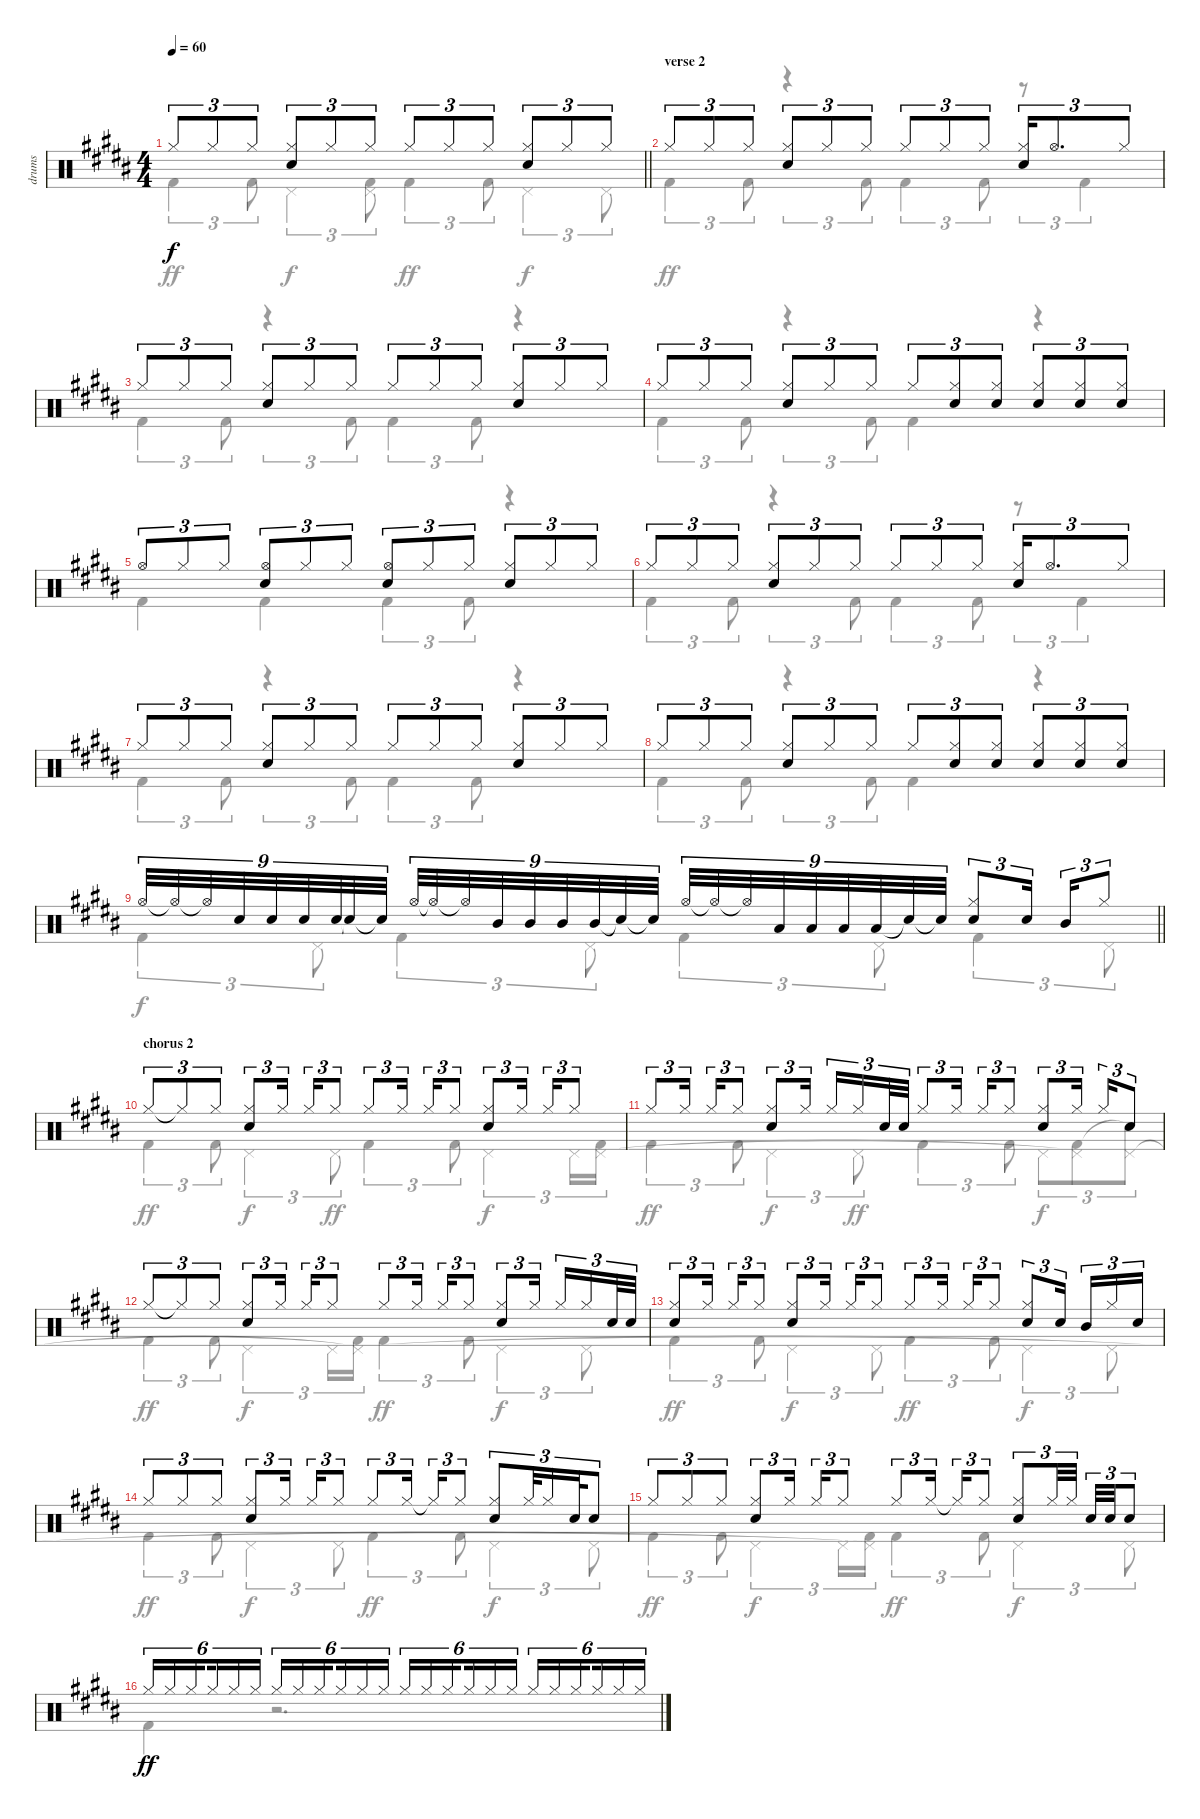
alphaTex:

\track ("drums" "drums") {instrument percussion}
\staff {score}
\articulation defaults
\voice
\ts (4 4)
\tempo 60
\clef neutral
\barLineRight lightlight
\ks b "Hi-Hat (closed)".8{tu (3 2) dy f} "Hi-Hat (closed)".8{tu (3 2)} "Hi-Hat (closed)".8{tu (3 2)}
("Hi-Hat (closed)" "Electric Snare (hit)").8{tu (3 2)} "Hi-Hat (closed)".8{tu (3 2)} "Hi-Hat (closed)".8{tu (3 2)} "Hi-Hat (closed)".8{tu (3 2)} "Hi-Hat (closed)".8{tu (3 2)} "Hi-Hat (closed)".8{tu (3 2)} ("Hi-Hat (closed)" "Electric Snare (hit)").8{tu (3 2)} "Hi-Hat (closed)".8{tu (3 2)} "Hi-Hat (closed)".8{tu (3 2)} |
\section ("" "verse 2")
"Hi-Hat (closed)".8{tu (3 2)} "Hi-Hat (closed)".8{tu (3 2)} "Hi-Hat (closed)".8{tu (3 2)} ("Hi-Hat (closed)" "Electric Snare (hit)").8{tu (3 2)} "Hi-Hat (closed)".8{tu (3 2)} "Hi-Hat (closed)".8{tu (3 2)} "Hi-Hat (closed)".8{tu (3 2)} "Hi-Hat (closed)".8{tu (3 2)} "Hi-Hat (closed)".8{tu (3 2)} ("Hi-Hat (closed)" "Electric Snare (hit)").16{tu (3 2)} "Hi-Hat (open)".8{d tu (3 2)} "Hi-Hat (closed)".8{tu (3 2)} |
"Hi-Hat (closed)".8{tu (3 2)} "Hi-Hat (closed)".8{tu (3 2)} "Hi-Hat (closed)".8{tu (3 2)} ("Hi-Hat (closed)" "Electric Snare (hit)").8{tu (3 2)} "Hi-Hat (closed)".8{tu (3 2)} "Hi-Hat (closed)".8{tu (3 2)} "Hi-Hat (closed)".8{tu (3 2)} "Hi-Hat (closed)".8{tu (3 2)} "Hi-Hat (closed)".8{tu (3 2)} ("Hi-Hat (closed)" "Electric Snare (hit)").8{tu (3 2)} "Hi-Hat (closed)".8{tu (3 2)} "Hi-Hat (closed)".8{tu (3 2)} |
"Hi-Hat (closed)".8{tu (3 2)} "Hi-Hat (closed)".8{tu (3 2)} "Hi-Hat (closed)".8{tu (3 2)} ("Hi-Hat (closed)" "Electric Snare (hit)").8{tu (3 2)} "Hi-Hat (closed)".8{tu (3 2)} "Hi-Hat (closed)".8{tu (3 2)} "Hi-Hat (closed)".8{tu (3 2)} ("Hi-Hat (closed)" "Electric Snare (hit)").8{tu (3 2)} ("Hi-Hat (closed)" "Electric Snare (hit)").8{tu (3 2)} ("Hi-Hat (closed)" "Electric Snare (hit)").8{tu (3 2)} ("Hi-Hat (closed)" "Electric Snare (hit)").8{tu (3 2)} ("Hi-Hat (closed)" "Electric Snare (hit)").8{tu (3 2)} |
"Hi-Hat (open)".8{tu (3 2)} "Hi-Hat (closed)".8{tu (3 2)} "Hi-Hat (closed)".8{tu (3 2)} ("Hi-Hat (open)" "Electric Snare (hit)").8{tu (3 2)} "Hi-Hat (closed)".8{tu (3 2)} "Hi-Hat (closed)".8{tu (3 2)} ("Hi-Hat (open)" "Electric Snare (hit)").8{tu (3 2)} "Hi-Hat (closed)".8{tu (3 2)} "Hi-Hat (closed)".8{tu (3 2)} ("Hi-Hat (closed)" "Electric Snare (hit)").8{tu (3 2)} "Hi-Hat (closed)".8{tu (3 2)} "Hi-Hat (closed)".8{tu (3 2)} |
"Hi-Hat (closed)".8{tu (3 2)} "Hi-Hat (closed)".8{tu (3 2)} "Hi-Hat (closed)".8{tu (3 2)} ("Hi-Hat (closed)" "Electric Snare (hit)").8{tu (3 2)} "Hi-Hat (closed)".8{tu (3 2)} "Hi-Hat (closed)".8{tu (3 2)} "Hi-Hat (closed)".8{tu (3 2)} "Hi-Hat (closed)".8{tu (3 2)} "Hi-Hat (closed)".8{tu (3 2)} ("Hi-Hat (closed)" "Electric Snare (hit)").16{tu (3 2)} "Hi-Hat (open)".8{d tu (3 2)} "Hi-Hat (closed)".8{tu (3 2)} |
"Hi-Hat (closed)".8{tu (3 2)} "Hi-Hat (closed)".8{tu (3 2)} "Hi-Hat (closed)".8{tu (3 2)} ("Hi-Hat (closed)" "Electric Snare (hit)").8{tu (3 2)} "Hi-Hat (closed)".8{tu (3 2)} "Hi-Hat (closed)".8{tu (3 2)} "Hi-Hat (closed)".8{tu (3 2)} "Hi-Hat (closed)".8{tu (3 2)} "Hi-Hat (closed)".8{tu (3 2)} ("Hi-Hat (closed)" "Electric Snare (hit)").8{tu (3 2)} "Hi-Hat (closed)".8{tu (3 2)} "Hi-Hat (closed)".8{tu (3 2)} |
"Hi-Hat (closed)".8{tu (3 2)} "Hi-Hat (closed)".8{tu (3 2)} "Hi-Hat (closed)".8{tu (3 2)} ("Hi-Hat (closed)" "Electric Snare (hit)").8{tu (3 2)} "Hi-Hat (closed)".8{tu (3 2)} "Hi-Hat (closed)".8{tu (3 2)} "Hi-Hat (closed)".8{tu (3 2)} ("Hi-Hat (closed)" "Electric Snare (hit)").8{tu (3 2)} ("Hi-Hat (closed)" "Electric Snare (hit)").8{tu (3 2)} ("Hi-Hat (closed)" "Electric Snare (hit)").8{tu (3 2)} ("Hi-Hat (closed)" "Electric Snare (hit)").8{tu (3 2)} ("Hi-Hat (closed)" "Electric Snare (hit)").8{tu (3 2)} |
\barLineRight lightlight "Hi-Hat (open)".32{tu (9 8)} "Hi-Hat (open)"{t}.32{tu (9 8)} "Hi-Hat (open)"{t}.32{tu (9 8)} "Electric Snare (hit)".32{tu (9 8)} "Electric Snare (hit)".32{tu (9 8)} "Electric Snare (hit)".32{tu (9 8)} "Electric Snare (hit)".32{tu (9 8)} "Electric Snare (hit)"{t}.32{tu (9 8)} "Electric Snare (hit)"{t}.32{tu (9 8)} "Hi-Hat (open)".32{tu (9 8)} "Hi-Hat (open)"{t}.32{tu (9 8)} "Hi-Hat (open)"{t}.32{tu (9 8)} "Mid Tom (hit)".32{tu (9 8)} "Mid Tom (hit)".32{tu (9 8)} "Mid Tom (hit)".32{tu (9 8)} "Mid Tom (hit)".32{tu (9 8)} "Electric Snare (hit)"{t}.32{tu (9 8)} "Electric Snare (hit)"{t}.32{tu (9 8)} "Hi-Hat (open)".32{tu (9 8)} "Hi-Hat (open)"{t}.32{tu (9 8)} "Hi-Hat (open)"{t}.32{tu (9 8)} "Low Tom (hit)".32{tu (9 8)} "Low Tom (hit)".32{tu (9 8)} "Low Tom (hit)".32{tu (9 8)} "Low Tom (hit)".32{tu (9 8)} "Electric Snare (hit)"{t}.32{tu (9 8)} "Electric Snare (hit)"{t}.32{tu (9 8)}
("Hi-Hat (closed)" "Electric Snare (hit)").8{tu (3 2)} "Electric Snare (hit)".16{tu (3 2) beam splitsecondary} "Mid Tom (hit)".16{tu (3 2)} "Hi-Hat (closed)".8{tu (3 2)} |
\section ("" "chorus 2")
"Hi-Hat (closed)".8{tu (3 2)} "Hi-Hat (closed)"{t}.8{tu (3 2)} "Hi-Hat (closed)".8{tu (3 2)} ("Hi-Hat (closed)" "Electric Snare (hit)").8{tu (3 2)} "Hi-Hat (closed)".16{tu (3 2) beam splitsecondary} "Hi-Hat (closed)".16{tu (3 2)} "Hi-Hat (closed)".8{tu (3 2)} "Hi-Hat (closed)".8{tu (3 2)} "Hi-Hat (closed)".16{tu (3 2) beam splitsecondary} "Hi-Hat (closed)".16{tu (3 2)} "Hi-Hat (closed)".8{tu (3 2)} ("Hi-Hat (closed)" "Electric Snare (hit)").8{tu (3 2)} "Hi-Hat (closed)".16{tu (3 2) beam splitsecondary} "Hi-Hat (closed)".16{tu (3 2)} "Hi-Hat (closed)".8{tu (3 2)} |
"Hi-Hat (closed)".8{tu (3 2)} "Hi-Hat (closed)".16{tu (3 2) beam splitsecondary} "Hi-Hat (closed)".16{tu (3 2)} "Hi-Hat (closed)".8{tu (3 2)} ("Hi-Hat (closed)" "Electric Snare (hit)").8{tu (3 2)} "Hi-Hat (closed)".16{tu (3 2) beam splitsecondary} "Hi-Hat (closed)".16{tu (3 2)} "Hi-Hat (closed)".16{tu (3 2)} "Electric Snare (hit)".32{tu (3 2)} "Electric Snare (hit)".32{tu (3 2)} "Hi-Hat (closed)".8{tu (3 2)} "Hi-Hat (closed)".16{tu (3 2) beam splitsecondary} "Hi-Hat (closed)".16{tu (3 2)} "Hi-Hat (closed)".8{tu (3 2)} ("Hi-Hat (closed)" "Electric Snare (hit)").8{tu (3 2)} "Hi-Hat (closed)".16{tu (3 2) beam splitsecondary} "Hi-Hat (closed)".16{tu (3 2)} "Electric Snare (hit)".8{tu (3 2)} |
"Hi-Hat (closed)".8{tu (3 2)} "Hi-Hat (closed)"{t}.8{tu (3 2)} "Hi-Hat (closed)".8{tu (3 2)} ("Hi-Hat (closed)" "Electric Snare (hit)").8{tu (3 2)} "Hi-Hat (closed)".16{tu (3 2) beam splitsecondary} "Hi-Hat (closed)".16{tu (3 2)} "Hi-Hat (closed)".8{tu (3 2)} "Hi-Hat (closed)".8{tu (3 2)} "Hi-Hat (closed)".16{tu (3 2) beam splitsecondary} "Hi-Hat (closed)".16{tu (3 2)} "Hi-Hat (closed)".8{tu (3 2)} ("Hi-Hat (closed)" "Electric Snare (hit)").8{tu (3 2)} "Hi-Hat (closed)".16{tu (3 2) beam splitsecondary} "Hi-Hat (closed)".16{tu (3 2)} "Hi-Hat (closed)".16{tu (3 2)} "Electric Snare (hit)".32{tu (3 2)} "Electric Snare (hit)".32{tu (3 2)} |
("Hi-Hat (closed)" "Electric Snare (hit)").8{tu (3 2)} "Hi-Hat (closed)".16{tu (3 2) beam splitsecondary} "Hi-Hat (closed)".16{tu (3 2)} "Hi-Hat (closed)".8{tu (3 2)} ("Hi-Hat (closed)" "Electric Snare (hit)").8{tu (3 2)} "Hi-Hat (closed)".16{tu (3 2) beam splitsecondary} "Hi-Hat (closed)".16{tu (3 2)} "Hi-Hat (closed)".8{tu (3 2)} "Hi-Hat (closed)".8{tu (3 2)} "Hi-Hat (closed)".16{tu (3 2) beam splitsecondary} "Hi-Hat (closed)".16{tu (3 2)} "Hi-Hat (closed)".8{tu (3 2)} ("Hi-Hat (closed)" "Electric Snare (hit)").8{tu (3 2)} "Electric Snare (hit)".16{tu (3 2) beam splitsecondary} "Mid Tom (hit)".16{tu (3 2)} "Hi-Hat (closed)".16{tu (3 2)} "Electric Snare (hit)".16{tu (3 2)} |
"Hi-Hat (closed)".8{tu (3 2)} "Hi-Hat (closed)".8{tu (3 2)} "Hi-Hat (closed)".8{tu (3 2)} ("Hi-Hat (closed)" "Electric Snare (hit)").8{tu (3 2)} "Hi-Hat (closed)".16{tu (3 2) beam splitsecondary} "Hi-Hat (closed)".16{tu (3 2)} "Hi-Hat (closed)".8{tu (3 2)} "Hi-Hat (closed)".8{tu (3 2)} "Hi-Hat (closed)".16{tu (3 2) beam splitsecondary} "Hi-Hat (closed)"{t}.16{tu (3 2)} "Hi-Hat (closed)".8{tu (3 2)} ("Hi-Hat (closed)" "Electric Snare (hit)").8{tu (3 2)} "Hi-Hat (closed)".32{tu (3 2)} "Hi-Hat (closed)".16{tu (3 2)} "Electric Snare (hit)".32{tu (3 2)} "Electric Snare (hit)".8{tu (3 2)} |
"Hi-Hat (closed)".8{tu (3 2)} "Hi-Hat (closed)".8{tu (3 2)} "Hi-Hat (closed)".8{tu (3 2)} ("Hi-Hat (closed)" "Electric Snare (hit)").8{tu (3 2)} "Hi-Hat (closed)".16{tu (3 2) beam splitsecondary} "Hi-Hat (closed)".16{tu (3 2)} "Hi-Hat (closed)".8{tu (3 2)} "Hi-Hat (closed)".8{tu (3 2)} "Hi-Hat (closed)".16{tu (3 2) beam splitsecondary} "Hi-Hat (closed)"{t}.16{tu (3 2)} "Hi-Hat (closed)".8{tu (3 2)} ("Hi-Hat (closed)" "Electric Snare (hit)").8{tu (3 2)} "Hi-Hat (closed)".32{tu (3 2)} "Hi-Hat (closed)".32{tu (3 2) beam splitsecondary} "Electric Snare (hit)".32{tu (3 2)} "Electric Snare (hit)".32{tu (3 2)} "Electric Snare (hit)".8{tu (3 2)} |
"Hi-Hat (closed)".16{tu (6 4) dy ff} "Hi-Hat (closed)".16{tu (6 4)} "Hi-Hat (closed)".16{tu (6 4) beam splitsecondary} "Hi-Hat (closed)".16{tu (6 4)} "Hi-Hat (closed)".16{tu (6 4)} "Hi-Hat (closed)".16{tu (6 4)} "Hi-Hat (closed)".16{tu (6 4)} "Hi-Hat (closed)".16{tu (6 4)} "Hi-Hat (closed)".16{tu (6 4) beam splitsecondary} "Hi-Hat (closed)".16{tu (6 4)} "Hi-Hat (closed)".16{tu (6 4)} "Hi-Hat (closed)".16{tu (6 4)} "Hi-Hat (closed)".16{tu (6 4)} "Hi-Hat (closed)".16{tu (6 4)} "Hi-Hat (closed)".16{tu (6 4) beam splitsecondary} "Hi-Hat (closed)".16{tu (6 4)} "Hi-Hat (closed)".16{tu (6 4)} "Hi-Hat (closed)".16{tu (6 4)} "Hi-Hat (closed)".16{tu (6 4)} "Hi-Hat (closed)".16{tu (6 4)} "Hi-Hat (closed)".16{tu (6 4) beam splitsecondary} "Hi-Hat (closed)".16{tu (6 4)} "Hi-Hat (closed)".16{tu (6 4)} "Hi-Hat (closed)".16{tu (6 4)}
\voice
\clef neutral
\ottava regular
\simile none
\barLineRight lightlight
\ks b "Kick (hit) 2".4{tu (3 2) dy ff} "Kick (hit) 2".8{tu (3 2)} "Pedal Hi-Hat (hit)".4{tu (3 2) dy f}
("Kick (hit) 2" "Pedal Hi-Hat (hit)").8{tu (3 2)} "Kick (hit) 2".4{tu (3 2) dy ff} "Kick (hit) 2".8{tu (3 2)} "Pedal Hi-Hat (hit)".4{tu (3 2) dy f} "Pedal Hi-Hat (hit)".8{tu (3 2)} |
"Kick (hit) 2".4{tu (3 2) dy ff} "Kick (hit) 2".8{tu (3 2)} r.4{tu (3 2)} "Kick (hit) 2".8{tu (3 2)} "Kick (hit) 2".4{tu (3 2)} "Kick (hit) 2".8{tu (3 2)} r.8{tu (3 2)} "Kick (hit) 2".4{tu (3 2)} |
"Kick (hit) 2".4{tu (3 2)} "Kick (hit) 2".8{tu (3 2)} r.4{tu (3 2)} "Kick (hit) 2".8{tu (3 2)} "Kick (hit) 2".4{tu (3 2)} "Kick (hit) 2".8{tu (3 2)} r.4 |
"Kick (hit) 2".4{tu (3 2)} "Kick (hit) 2".8{tu (3 2)} r.4{tu (3 2)} "Kick (hit) 2".8{tu (3 2)} "Kick (hit) 2".4 r.4 |
"Kick (hit) 2".4 "Kick (hit) 2".4 "Kick (hit) 2".4{tu (3 2)} "Kick (hit) 2".8{tu (3 2)} r.4 |
"Kick (hit) 2".4{tu (3 2)} "Kick (hit) 2".8{tu (3 2)} r.4{tu (3 2)} "Kick (hit) 2".8{tu (3 2)} "Kick (hit) 2".4{tu (3 2)} "Kick (hit) 2".8{tu (3 2)} r.8{tu (3 2)} "Kick (hit) 2".4{tu (3 2)} |
"Kick (hit) 2".4{tu (3 2)} "Kick (hit) 2".8{tu (3 2)} r.4{tu (3 2)} "Kick (hit) 2".8{tu (3 2)} "Kick (hit) 2".4{tu (3 2)} "Kick (hit) 2".8{tu (3 2)} r.4 |
"Kick (hit) 2".4{tu (3 2)} "Kick (hit) 2".8{tu (3 2)} r.4{tu (3 2)} "Kick (hit) 2".8{tu (3 2)} "Kick (hit) 2".4 r.4 |
\barLineRight lightlight "Kick (hit) 2".4{tu (3 2) dy f} "Pedal Hi-Hat (hit)".8{tu (3 2)} "Kick (hit) 2".4{tu (3 2)} "Pedal Hi-Hat (hit)".8{tu (3 2)} "Kick (hit) 2".4{tu (3 2)} "Pedal Hi-Hat (hit)".8{tu (3 2)} "Kick (hit) 2".4{tu (3 2)} "Pedal Hi-Hat (hit)".8{tu (3 2)}
|
"Kick (hit) 2".4{tu (3 2) dy ff} "Kick (hit) 2".8{tu (3 2)} "Pedal Hi-Hat (hit)".4{tu (3 2) dy f} "Pedal Hi-Hat (hit)".8{tu (3 2) dy ff} "Kick (hit) 2".4{tu (3 2)} "Kick (hit) 2".8{tu (3 2)} "Pedal Hi-Hat (hit)".4{tu (3 2) dy f} "Pedal Hi-Hat (hit)".16{tu (3 2)} ("Kick (hit) 2" "Pedal Hi-Hat (hit)").16{tu (3 2)} |
"Kick (hit) 2".4{tu (3 2) dy ff} "Kick (hit) 2".8{tu (3 2)} "Pedal Hi-Hat (hit)".4{tu (3 2) dy f} "Pedal Hi-Hat (hit)".8{tu (3 2) dy ff} "Kick (hit) 2".4{tu (3 2)} "Kick (hit) 2".8{tu (3 2)} "Pedal Hi-Hat (hit)".8{tu (3 2) dy f} ("Kick (hit) 2" "Pedal Hi-Hat (hit)"{t}).8{tu (3 2)} ("Snare (hit)"{t} "Pedal Hi-Hat (hit)").8{tu (3 2)} |
"Kick (hit) 2".4{tu (3 2) dy ff} "Kick (hit) 2".8{tu (3 2)} "Pedal Hi-Hat (hit)".4{tu (3 2) dy f} "Pedal Hi-Hat (hit)".16{tu (3 2)} ("Kick (hit) 2" "Pedal Hi-Hat (hit)"{t}).16{tu (3 2)} "Kick (hit) 2".4{tu (3 2) dy ff} "Kick (hit) 2".8{tu (3 2)} "Pedal Hi-Hat (hit)".4{tu (3 2) dy f} "Pedal Hi-Hat (hit)".8{tu (3 2)} |
"Kick (hit) 2".4{tu (3 2) dy ff} "Kick (hit) 2".8{tu (3 2)} "Pedal Hi-Hat (hit)".4{tu (3 2) dy f} "Pedal Hi-Hat (hit)".8{tu (3 2)} "Kick (hit) 2".4{tu (3 2) dy ff} "Kick (hit) 2".8{tu (3 2)} "Pedal Hi-Hat (hit)".4{tu (3 2) dy f} "Pedal Hi-Hat (hit)".8{tu (3 2)} |
"Kick (hit) 2".4{tu (3 2) dy ff} "Kick (hit) 2".8{tu (3 2)} "Pedal Hi-Hat (hit)".4{tu (3 2) dy f} "Pedal Hi-Hat (hit)".8{tu (3 2)} "Kick (hit) 2".4{tu (3 2) dy ff} "Kick (hit) 2".8{tu (3 2)} "Pedal Hi-Hat (hit)".4{tu (3 2) dy f} "Pedal Hi-Hat (hit)".8{tu (3 2)} |
"Kick (hit) 2".4{tu (3 2) dy ff} "Kick (hit) 2".8{tu (3 2)} "Pedal Hi-Hat (hit)".4{tu (3 2) dy f} "Pedal Hi-Hat (hit)".16{tu (3 2)} ("Kick (hit) 2" "Pedal Hi-Hat (hit)"{t}).16{tu (3 2)} "Kick (hit) 2".4{tu (3 2) dy ff} "Kick (hit) 2".8{tu (3 2)} "Pedal Hi-Hat (hit)".4{tu (3 2) dy f} "Pedal Hi-Hat (hit)".8{tu (3 2)} |
"Kick (hit) 2".4{dy ff} r.2{d}
